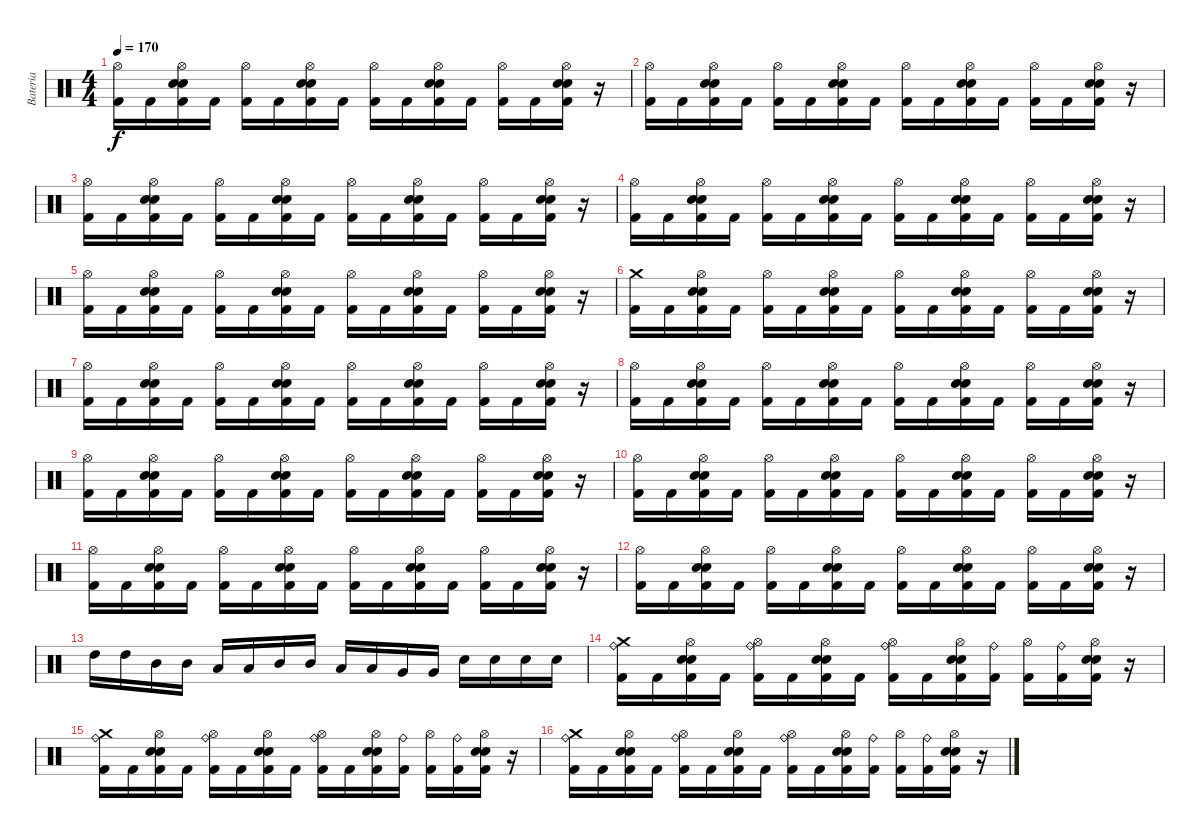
\track ("Bateria" "Bateria") {instrument percussion}
\staff {score}
\articulation defaults
\ts (4 4)
\tempo 170
\clef neutral
\ks c
("Hi-Hat (open)" "Kick (hit) 2").16{dy f} "Kick (hit) 2".16 ("Hi-Hat (open)" "Electric Snare (hit)" "Snare (hit) 2" "Kick (hit) 2").16 "Kick (hit) 2".16 ("Hi-Hat (open)" "Kick (hit) 2").16 "Kick (hit) 2".16 ("Hi-Hat (open)" "Electric Snare (hit)" "Snare (hit) 2" "Kick (hit) 2").16 "Kick (hit) 2".16 ("Hi-Hat (open)" "Kick (hit) 2").16 "Kick (hit) 2".16 ("Hi-Hat (open)" "Electric Snare (hit)" "Snare (hit) 2" "Kick (hit) 2").16 "Kick (hit) 2".16 ("Hi-Hat (open)" "Kick (hit) 2").16 "Kick (hit) 2".16 ("Hi-Hat (open)" "Electric Snare (hit)" "Snare (hit) 2" "Kick (hit) 2").16 r.16 |
("Hi-Hat (open)" "Kick (hit) 2").16 "Kick (hit) 2".16 ("Hi-Hat (open)" "Electric Snare (hit)" "Snare (hit) 2" "Kick (hit) 2").16 "Kick (hit) 2".16 ("Hi-Hat (open)" "Kick (hit) 2").16 "Kick (hit) 2".16 ("Hi-Hat (open)" "Electric Snare (hit)" "Snare (hit) 2" "Kick (hit) 2").16 "Kick (hit) 2".16 ("Hi-Hat (open)" "Kick (hit) 2").16 "Kick (hit) 2".16 ("Hi-Hat (open)" "Electric Snare (hit)" "Snare (hit) 2" "Kick (hit) 2").16 "Kick (hit) 2".16 ("Hi-Hat (open)" "Kick (hit) 2").16 "Kick (hit) 2".16 ("Hi-Hat (open)" "Electric Snare (hit)" "Snare (hit) 2" "Kick (hit) 2").16 r.16 |
("Hi-Hat (open)" "Kick (hit) 2").16 "Kick (hit) 2".16 ("Hi-Hat (open)" "Electric Snare (hit)" "Snare (hit) 2" "Kick (hit) 2").16 "Kick (hit) 2".16 ("Hi-Hat (open)" "Kick (hit) 2").16 "Kick (hit) 2".16 ("Hi-Hat (open)" "Electric Snare (hit)" "Snare (hit) 2" "Kick (hit) 2").16 "Kick (hit) 2".16 ("Hi-Hat (open)" "Kick (hit) 2").16 "Kick (hit) 2".16 ("Hi-Hat (open)" "Electric Snare (hit)" "Snare (hit) 2" "Kick (hit) 2").16 "Kick (hit) 2".16 ("Hi-Hat (open)" "Kick (hit) 2").16 "Kick (hit) 2".16 ("Hi-Hat (open)" "Electric Snare (hit)" "Snare (hit) 2" "Kick (hit) 2").16 r.16 |
("Hi-Hat (open)" "Kick (hit) 2").16 "Kick (hit) 2".16 ("Hi-Hat (open)" "Electric Snare (hit)" "Snare (hit) 2" "Kick (hit) 2").16 "Kick (hit) 2".16 ("Hi-Hat (open)" "Kick (hit) 2").16 "Kick (hit) 2".16 ("Hi-Hat (open)" "Electric Snare (hit)" "Snare (hit) 2" "Kick (hit) 2").16 "Kick (hit) 2".16 ("Hi-Hat (open)" "Kick (hit) 2").16 "Kick (hit) 2".16 ("Hi-Hat (open)" "Electric Snare (hit)" "Snare (hit) 2" "Kick (hit) 2").16 "Kick (hit) 2".16 ("Hi-Hat (open)" "Kick (hit) 2").16 "Kick (hit) 2".16 ("Hi-Hat (open)" "Electric Snare (hit)" "Snare (hit) 2" "Kick (hit) 2").16 r.16 |
("Hi-Hat (open)" "Kick (hit) 2").16 "Kick (hit) 2".16 ("Hi-Hat (open)" "Electric Snare (hit)" "Snare (hit) 2" "Kick (hit) 2").16 "Kick (hit) 2".16 ("Hi-Hat (open)" "Kick (hit) 2").16 "Kick (hit) 2".16 ("Hi-Hat (open)" "Electric Snare (hit)" "Snare (hit) 2" "Kick (hit) 2").16 "Kick (hit) 2".16 ("Hi-Hat (open)" "Kick (hit) 2").16 "Kick (hit) 2".16 ("Hi-Hat (open)" "Electric Snare (hit)" "Snare (hit) 2" "Kick (hit) 2").16 "Kick (hit) 2".16 ("Hi-Hat (open)" "Kick (hit) 2").16 "Kick (hit) 2".16 ("Hi-Hat (open)" "Electric Snare (hit)" "Snare (hit) 2" "Kick (hit) 2").16 r.16 |
("Crash medium (hit)" "Kick (hit) 2").16 "Kick (hit) 2".16 ("Hi-Hat (open)" "Electric Snare (hit)" "Snare (hit) 2" "Kick (hit) 2").16 "Kick (hit) 2".16 ("Hi-Hat (open)" "Kick (hit) 2").16 "Kick (hit) 2".16 ("Hi-Hat (open)" "Electric Snare (hit)" "Snare (hit) 2" "Kick (hit) 2").16 "Kick (hit) 2".16 ("Hi-Hat (open)" "Kick (hit) 2").16 "Kick (hit) 2".16 ("Hi-Hat (open)" "Electric Snare (hit)" "Snare (hit) 2" "Kick (hit) 2").16 "Kick (hit) 2".16 ("Hi-Hat (open)" "Kick (hit) 2").16 "Kick (hit) 2".16 ("Hi-Hat (open)" "Electric Snare (hit)" "Snare (hit) 2" "Kick (hit) 2").16 r.16 |
("Hi-Hat (open)" "Kick (hit) 2").16 "Kick (hit) 2".16 ("Hi-Hat (open)" "Electric Snare (hit)" "Snare (hit) 2" "Kick (hit) 2").16 "Kick (hit) 2".16 ("Hi-Hat (open)" "Kick (hit) 2").16 "Kick (hit) 2".16 ("Hi-Hat (open)" "Electric Snare (hit)" "Snare (hit) 2" "Kick (hit) 2").16 "Kick (hit) 2".16 ("Hi-Hat (open)" "Kick (hit) 2").16 "Kick (hit) 2".16 ("Hi-Hat (open)" "Electric Snare (hit)" "Snare (hit) 2" "Kick (hit) 2").16 "Kick (hit) 2".16 ("Hi-Hat (open)" "Kick (hit) 2").16 "Kick (hit) 2".16 ("Hi-Hat (open)" "Electric Snare (hit)" "Snare (hit) 2" "Kick (hit) 2").16 r.16 |
("Hi-Hat (open)" "Kick (hit) 2").16 "Kick (hit) 2".16 ("Hi-Hat (open)" "Electric Snare (hit)" "Snare (hit) 2" "Kick (hit) 2").16 "Kick (hit) 2".16 ("Hi-Hat (open)" "Kick (hit) 2").16 "Kick (hit) 2".16 ("Hi-Hat (open)" "Electric Snare (hit)" "Snare (hit) 2" "Kick (hit) 2").16 "Kick (hit) 2".16 ("Hi-Hat (open)" "Kick (hit) 2").16 "Kick (hit) 2".16 ("Hi-Hat (open)" "Electric Snare (hit)" "Snare (hit) 2" "Kick (hit) 2").16 "Kick (hit) 2".16 ("Hi-Hat (open)" "Kick (hit) 2").16 "Kick (hit) 2".16 ("Hi-Hat (open)" "Electric Snare (hit)" "Snare (hit) 2" "Kick (hit) 2").16 r.16 |
("Hi-Hat (open)" "Kick (hit) 2").16 "Kick (hit) 2".16 ("Hi-Hat (open)" "Electric Snare (hit)" "Snare (hit) 2" "Kick (hit) 2").16 "Kick (hit) 2".16 ("Hi-Hat (open)" "Kick (hit) 2").16 "Kick (hit) 2".16 ("Hi-Hat (open)" "Electric Snare (hit)" "Snare (hit) 2" "Kick (hit) 2").16 "Kick (hit) 2".16 ("Hi-Hat (open)" "Kick (hit) 2").16 "Kick (hit) 2".16 ("Hi-Hat (open)" "Electric Snare (hit)" "Snare (hit) 2" "Kick (hit) 2").16 "Kick (hit) 2".16 ("Hi-Hat (open)" "Kick (hit) 2").16 "Kick (hit) 2".16 ("Hi-Hat (open)" "Electric Snare (hit)" "Snare (hit) 2" "Kick (hit) 2").16 r.16 |
("Hi-Hat (open)" "Kick (hit) 2").16 "Kick (hit) 2".16 ("Hi-Hat (open)" "Electric Snare (hit)" "Snare (hit) 2" "Kick (hit) 2").16 "Kick (hit) 2".16 ("Hi-Hat (open)" "Kick (hit) 2").16 "Kick (hit) 2".16 ("Hi-Hat (open)" "Electric Snare (hit)" "Snare (hit) 2" "Kick (hit) 2").16 "Kick (hit) 2".16 ("Hi-Hat (open)" "Kick (hit) 2").16 "Kick (hit) 2".16 ("Hi-Hat (open)" "Electric Snare (hit)" "Snare (hit) 2" "Kick (hit) 2").16 "Kick (hit) 2".16 ("Hi-Hat (open)" "Kick (hit) 2").16 "Kick (hit) 2".16 ("Hi-Hat (open)" "Electric Snare (hit)" "Snare (hit) 2" "Kick (hit) 2").16 r.16 |
("Hi-Hat (open)" "Kick (hit) 2").16 "Kick (hit) 2".16 ("Hi-Hat (open)" "Electric Snare (hit)" "Snare (hit) 2" "Kick (hit) 2").16 "Kick (hit) 2".16 ("Hi-Hat (open)" "Kick (hit) 2").16 "Kick (hit) 2".16 ("Hi-Hat (open)" "Electric Snare (hit)" "Snare (hit) 2" "Kick (hit) 2").16 "Kick (hit) 2".16 ("Hi-Hat (open)" "Kick (hit) 2").16 "Kick (hit) 2".16 ("Hi-Hat (open)" "Electric Snare (hit)" "Snare (hit) 2" "Kick (hit) 2").16 "Kick (hit) 2".16 ("Hi-Hat (open)" "Kick (hit) 2").16 "Kick (hit) 2".16 ("Hi-Hat (open)" "Electric Snare (hit)" "Snare (hit) 2" "Kick (hit) 2").16 r.16 |
("Hi-Hat (open)" "Kick (hit) 2").16 "Kick (hit) 2".16 ("Hi-Hat (open)" "Electric Snare (hit)" "Snare (hit) 2" "Kick (hit) 2").16 "Kick (hit) 2".16 ("Hi-Hat (open)" "Kick (hit) 2").16 "Kick (hit) 2".16 ("Hi-Hat (open)" "Electric Snare (hit)" "Snare (hit) 2" "Kick (hit) 2").16 "Kick (hit) 2".16 ("Hi-Hat (open)" "Kick (hit) 2").16 "Kick (hit) 2".16 ("Hi-Hat (open)" "Electric Snare (hit)" "Snare (hit) 2" "Kick (hit) 2").16 "Kick (hit) 2".16 ("Hi-Hat (open)" "Kick (hit) 2").16 "Kick (hit) 2".16 ("Hi-Hat (open)" "Electric Snare (hit)" "Snare (hit) 2" "Kick (hit) 2").16 r.16 |
"High Tom (hit)".16 "High Tom (hit)".16 "Mid Tom (hit)".16 "Mid Tom (hit)".16 "Low Tom (hit)".16 "Low Tom (hit)".16 "Mid Tom (hit)".16 "Mid Tom (hit)".16 "Low Tom (hit)".16 "Low Tom (hit)".16 "Very Low Tom (hit)".16 "Very Low Tom (hit)".16 "Snare (hit) 2".16 "Snare (hit) 2".16 "Snare (hit) 2".16 "Snare (hit) 2".16 |
("Ride (bell)" "Crash medium (hit)" "Kick (hit) 2").16 "Kick (hit) 2".16 ("Hi-Hat (open)" "Electric Snare (hit)" "Snare (hit) 2" "Kick (hit) 2").16 "Kick (hit) 2".16 ("Ride (bell)" "Hi-Hat (open)" "Kick (hit) 2").16 "Kick (hit) 2".16 ("Hi-Hat (open)" "Electric Snare (hit)" "Snare (hit) 2" "Kick (hit) 2").16 "Kick (hit) 2".16 ("Ride (bell)" "Hi-Hat (open)" "Kick (hit) 2").16 "Kick (hit) 2".16 ("Hi-Hat (open)" "Electric Snare (hit)" "Snare (hit) 2" "Kick (hit) 2").16 ("Ride (bell)" "Kick (hit) 2").16 ("Hi-Hat (open)" "Kick (hit) 2").16 ("Ride (bell)" "Kick (hit) 2").16 ("Hi-Hat (open)" "Electric Snare (hit)" "Snare (hit) 2" "Kick (hit) 2").16 r.16 |
("Ride (bell)" "Crash medium (hit)" "Kick (hit) 2").16 "Kick (hit) 2".16 ("Hi-Hat (open)" "Electric Snare (hit)" "Snare (hit) 2" "Kick (hit) 2").16 "Kick (hit) 2".16 ("Ride (bell)" "Hi-Hat (open)" "Kick (hit) 2").16 "Kick (hit) 2".16 ("Hi-Hat (open)" "Electric Snare (hit)" "Snare (hit) 2" "Kick (hit) 2").16 "Kick (hit) 2".16 ("Ride (bell)" "Hi-Hat (open)" "Kick (hit) 2").16 "Kick (hit) 2".16 ("Hi-Hat (open)" "Electric Snare (hit)" "Snare (hit) 2" "Kick (hit) 2").16 ("Ride (bell)" "Kick (hit) 2").16 ("Hi-Hat (open)" "Kick (hit) 2").16 ("Ride (bell)" "Kick (hit) 2").16 ("Hi-Hat (open)" "Electric Snare (hit)" "Snare (hit) 2" "Kick (hit) 2").16 r.16 |
("Ride (bell)" "Crash medium (hit)" "Kick (hit) 2").16 "Kick (hit) 2".16 ("Hi-Hat (open)" "Electric Snare (hit)" "Snare (hit) 2" "Kick (hit) 2").16 "Kick (hit) 2".16 ("Ride (bell)" "Hi-Hat (open)" "Kick (hit) 2").16 "Kick (hit) 2".16 ("Hi-Hat (open)" "Electric Snare (hit)" "Snare (hit) 2" "Kick (hit) 2").16 "Kick (hit) 2".16 ("Ride (bell)" "Hi-Hat (open)" "Kick (hit) 2").16 "Kick (hit) 2".16 ("Hi-Hat (open)" "Electric Snare (hit)" "Snare (hit) 2" "Kick (hit) 2").16 ("Ride (bell)" "Kick (hit) 2").16 ("Hi-Hat (open)" "Kick (hit) 2").16 ("Ride (bell)" "Kick (hit) 2").16 ("Hi-Hat (open)" "Electric Snare (hit)" "Snare (hit) 2" "Kick (hit) 2").16 r.16
